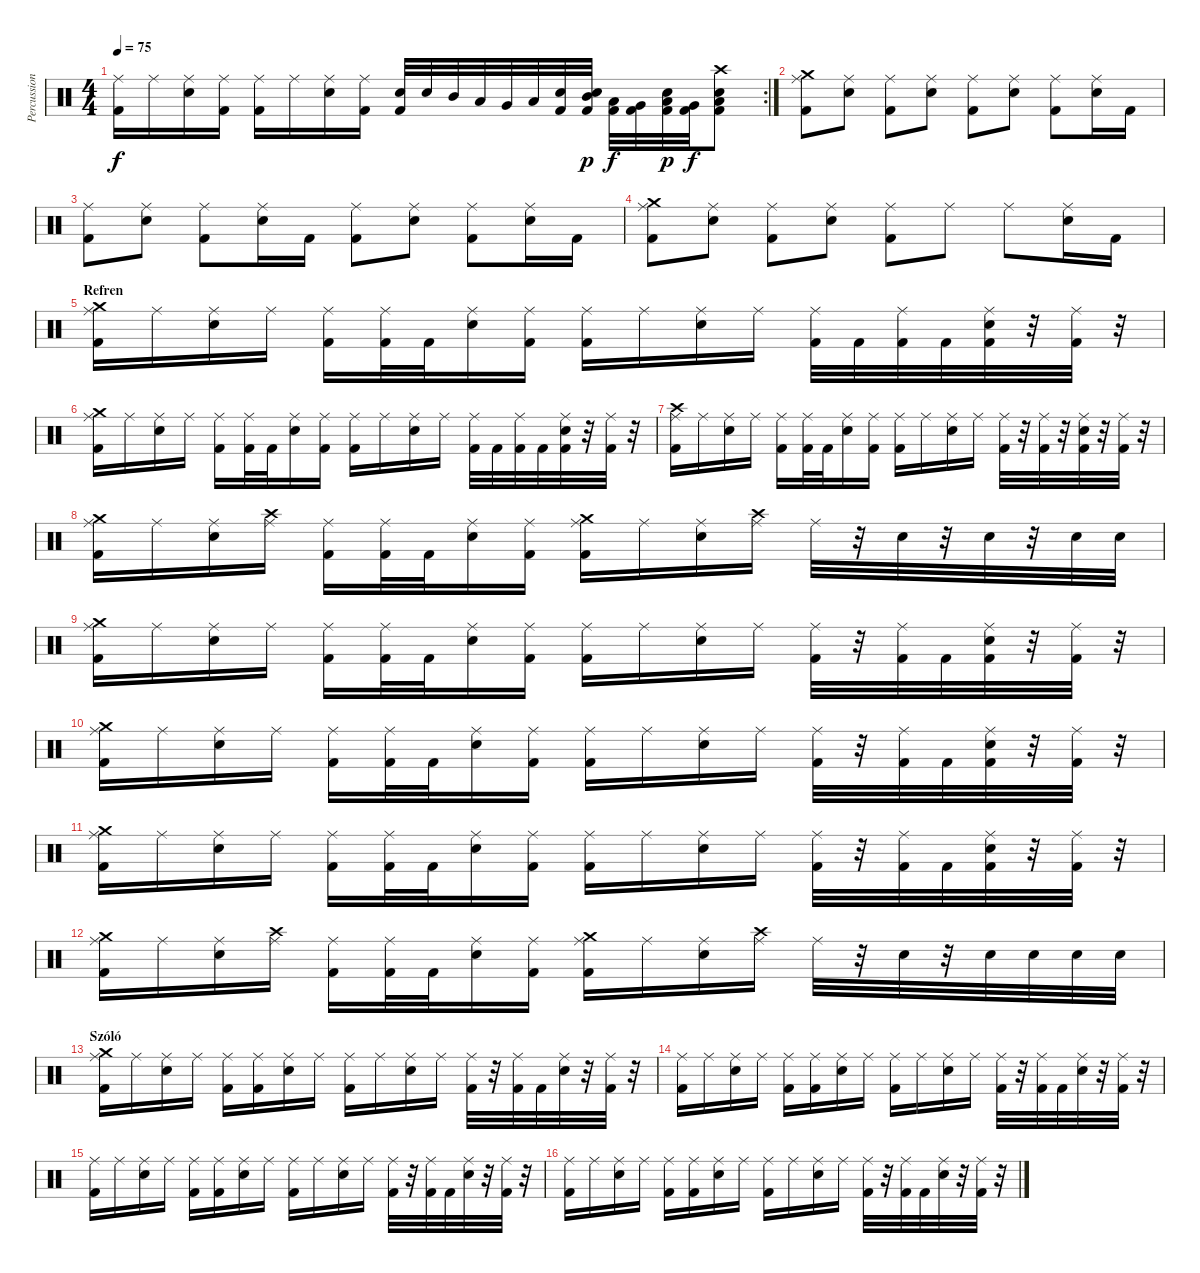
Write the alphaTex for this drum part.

\track ("Percussion" "Percussion") {instrument percussion}
\staff {score}
\articulation defaults
\rc 2
\ts (4 4)
\tempo 75
\clef neutral
\ks c
("Ride (middle)" "Kick (hit) 2").16{dy f} "Ride (middle)".16 ("Ride (middle)" "Electric Snare (hit)").16 ("Ride (middle)" "Kick (hit) 2").16 ("Ride (middle)" "Kick (hit) 2").16 "Ride (middle)".16 ("Ride (middle)" "Electric Snare (hit)").16 ("Ride (middle)" "Kick (hit) 2").16 ("Kick (hit) 2" "Electric Snare (hit)").32 "Electric Snare (hit)".32 "Mid Tom (hit)".32 "Low Tom (hit)".32 "Very Low Tom (hit)".32 "Low Floor Tom (hit)".32 ("Kick (hit) 2" "Electric Snare (hit)").32 ("Kick (hit) 2" "Electric Snare (hit)" "Mid Tom (hit)").32{dy p} ("Kick (hit) 2" "Low Tom (hit)").32{dy f} ("Kick (hit) 2" "Very Low Tom (hit)").32 ("Kick (hit) 2" "Electric Snare (hit)" "Low Tom (hit)").32{dy p} ("Kick (hit) 2" "Very Low Tom (hit)").32{dy f} ("Crash high (hit)" "Kick (hit) 2" "Low Tom (hit)" "Electric Snare (hit)").8 |
("Ride (middle)" "Crash medium (hit)" "Kick (hit) 2").8 ("Ride (middle)" "Electric Snare (hit)").8 ("Ride (middle)" "Kick (hit) 2").8 ("Ride (middle)" "Electric Snare (hit)").8 ("Ride (middle)" "Kick (hit) 2").8 ("Ride (middle)" "Electric Snare (hit)").8 ("Ride (middle)" "Kick (hit) 2").8 ("Ride (middle)" "Electric Snare (hit)").16 "Kick (hit) 2".16 |
("Ride (middle)" "Kick (hit) 2").8 ("Ride (middle)" "Electric Snare (hit)").8 ("Ride (middle)" "Kick (hit) 2").8 ("Ride (middle)" "Electric Snare (hit)").16 "Kick (hit) 2".16 ("Ride (middle)" "Kick (hit) 2").8 ("Ride (middle)" "Electric Snare (hit)").8 ("Ride (middle)" "Kick (hit) 2").8 ("Ride (middle)" "Electric Snare (hit)").16 "Kick (hit) 2".16 |
("Ride (middle)" "Crash medium (hit)" "Kick (hit) 2").8 ("Ride (middle)" "Electric Snare (hit)").8 ("Ride (middle)" "Kick (hit) 2").8 ("Ride (middle)" "Electric Snare (hit)").8 ("Ride (middle)" "Kick (hit) 2").8 "Ride (middle)".8 "Ride (middle)".8 ("Ride (middle)" "Electric Snare (hit)").16 "Kick (hit) 2".16 |
\section ("" "Refren")
("Ride (middle)" "Crash medium (hit)" "Kick (hit) 2").16 "Ride (middle)".16 ("Ride (middle)" "Electric Snare (hit)").16 "Ride (middle)".16 ("Ride (middle)" "Kick (hit) 2").16 ("Ride (middle)" "Kick (hit) 2").32 "Kick (hit) 2".32 ("Ride (middle)" "Electric Snare (hit)").16 ("Ride (middle)" "Kick (hit) 2").16 ("Ride (middle)" "Kick (hit) 2").16 "Ride (middle)".16 ("Ride (middle)" "Electric Snare (hit)").16 "Ride (middle)".16 ("Ride (middle)" "Kick (hit) 2").32 "Kick (hit) 2".32 ("Ride (middle)" "Kick (hit) 2").32 "Kick (hit) 2".32 ("Ride (middle)" "Kick (hit) 2" "Electric Snare (hit)").32 r.32 ("Ride (middle)" "Kick (hit) 2").32 r.32 |
("Ride (middle)" "Crash medium (hit)" "Kick (hit) 2").16 "Ride (middle)".16 ("Ride (middle)" "Electric Snare (hit)").16 "Ride (middle)".16 ("Ride (middle)" "Kick (hit) 2").16 ("Ride (middle)" "Kick (hit) 2").32 "Kick (hit) 2".32 ("Ride (middle)" "Electric Snare (hit)").16 ("Ride (middle)" "Kick (hit) 2").16 ("Ride (middle)" "Kick (hit) 2").16 "Ride (middle)".16 ("Ride (middle)" "Electric Snare (hit)").16 "Ride (middle)".16 ("Ride (middle)" "Kick (hit) 2").32 "Kick (hit) 2".32 ("Ride (middle)" "Kick (hit) 2").32 "Kick (hit) 2".32 ("Ride (middle)" "Kick (hit) 2" "Electric Snare (hit)").32 r.32 ("Ride (middle)" "Kick (hit) 2").32 r.32 |
("Ride (middle)" "Crash high (hit)" "Kick (hit) 2").16 "Ride (middle)".16 ("Ride (middle)" "Electric Snare (hit)").16 "Ride (middle)".16 ("Ride (middle)" "Kick (hit) 2").16 ("Ride (middle)" "Kick (hit) 2").32 "Kick (hit) 2".32 ("Ride (middle)" "Electric Snare (hit)").16 ("Ride (middle)" "Kick (hit) 2").16 ("Ride (middle)" "Kick (hit) 2").16 "Ride (middle)".16 ("Ride (middle)" "Electric Snare (hit)").16 "Ride (middle)".16 ("Ride (middle)" "Kick (hit) 2").32 r.32 ("Ride (middle)" "Kick (hit) 2").32 r.32 ("Ride (middle)" "Kick (hit) 2" "Electric Snare (hit)").32 r.32 ("Ride (middle)" "Kick (hit) 2").32 r.32 |
("Ride (middle)" "Crash medium (hit)" "Kick (hit) 2").16 "Ride (middle)".16 ("Ride (middle)" "Electric Snare (hit)").16 ("Ride (middle)" "Crash high (hit)").16 ("Ride (middle)" "Kick (hit) 2").16 ("Ride (middle)" "Kick (hit) 2").32 "Kick (hit) 2".32 ("Ride (middle)" "Electric Snare (hit)").16 ("Ride (middle)" "Kick (hit) 2").16 ("Ride (middle)" "Crash medium (hit)" "Kick (hit) 2").16 "Ride (middle)".16 ("Ride (middle)" "Electric Snare (hit)").16 ("Ride (middle)" "Crash high (hit)").16 "Ride (middle)".32 r.32 "Electric Snare (hit)".32 r.32 "Electric Snare (hit)".32 r.32 "Electric Snare (hit)".32 "Electric Snare (hit)".32 |
("Ride (middle)" "Crash medium (hit)" "Kick (hit) 2").16 "Ride (middle)".16 ("Ride (middle)" "Electric Snare (hit)").16 "Ride (middle)".16 ("Ride (middle)" "Kick (hit) 2").16 ("Ride (middle)" "Kick (hit) 2").32 "Kick (hit) 2".32 ("Ride (middle)" "Electric Snare (hit)").16 ("Ride (middle)" "Kick (hit) 2").16 ("Ride (middle)" "Kick (hit) 2").16 "Ride (middle)".16 ("Ride (middle)" "Electric Snare (hit)").16 "Ride (middle)".16 ("Ride (middle)" "Kick (hit) 2").32 r.32 ("Ride (middle)" "Kick (hit) 2").32 "Kick (hit) 2".32 ("Ride (middle)" "Kick (hit) 2" "Electric Snare (hit)").32 r.32 ("Ride (middle)" "Kick (hit) 2").32 r.32 |
("Ride (middle)" "Crash medium (hit)" "Kick (hit) 2").16 "Ride (middle)".16 ("Ride (middle)" "Electric Snare (hit)").16 "Ride (middle)".16 ("Ride (middle)" "Kick (hit) 2").16 ("Ride (middle)" "Kick (hit) 2").32 "Kick (hit) 2".32 ("Ride (middle)" "Electric Snare (hit)").16 ("Ride (middle)" "Kick (hit) 2").16 ("Ride (middle)" "Kick (hit) 2").16 "Ride (middle)".16 ("Ride (middle)" "Electric Snare (hit)").16 "Ride (middle)".16 ("Ride (middle)" "Kick (hit) 2").32 r.32 ("Ride (middle)" "Kick (hit) 2").32 "Kick (hit) 2".32 ("Ride (middle)" "Kick (hit) 2" "Electric Snare (hit)").32 r.32 ("Ride (middle)" "Kick (hit) 2").32 r.32 |
("Ride (middle)" "Crash medium (hit)" "Kick (hit) 2").16 "Ride (middle)".16 ("Ride (middle)" "Electric Snare (hit)").16 "Ride (middle)".16 ("Ride (middle)" "Kick (hit) 2").16 ("Ride (middle)" "Kick (hit) 2").32 "Kick (hit) 2".32 ("Ride (middle)" "Electric Snare (hit)").16 ("Ride (middle)" "Kick (hit) 2").16 ("Ride (middle)" "Kick (hit) 2").16 "Ride (middle)".16 ("Ride (middle)" "Electric Snare (hit)").16 "Ride (middle)".16 ("Ride (middle)" "Kick (hit) 2").32 r.32 ("Ride (middle)" "Kick (hit) 2").32 "Kick (hit) 2".32 ("Ride (middle)" "Kick (hit) 2" "Electric Snare (hit)").32 r.32 ("Ride (middle)" "Kick (hit) 2").32 r.32 |
("Ride (middle)" "Crash medium (hit)" "Kick (hit) 2").16 "Ride (middle)".16 ("Ride (middle)" "Electric Snare (hit)").16 ("Ride (middle)" "Crash high (hit)").16 ("Ride (middle)" "Kick (hit) 2").16 ("Ride (middle)" "Kick (hit) 2").32 "Kick (hit) 2".32 ("Ride (middle)" "Electric Snare (hit)").16 ("Ride (middle)" "Kick (hit) 2").16 ("Ride (middle)" "Crash medium (hit)" "Kick (hit) 2").16 "Ride (middle)".16 ("Ride (middle)" "Electric Snare (hit)").16 ("Ride (middle)" "Crash high (hit)").16 "Ride (middle)".32 r.32 "Electric Snare (hit)".32 r.32 "Electric Snare (hit)".32 "Electric Snare (hit)".32 "Electric Snare (hit)".32 "Electric Snare (hit)".32 |
\section ("" "Szóló")
("Ride (middle)" "Crash medium (hit)" "Kick (hit) 2").16 "Ride (middle)".16 ("Ride (middle)" "Electric Snare (hit)").16 "Ride (middle)".16 ("Ride (middle)" "Kick (hit) 2").16 ("Ride (middle)" "Kick (hit) 2").16 ("Ride (middle)" "Electric Snare (hit)").16 "Ride (middle)".16 ("Ride (middle)" "Kick (hit) 2").16 "Ride (middle)".16 ("Ride (middle)" "Electric Snare (hit)").16 "Ride (middle)".16 ("Ride (middle)" "Kick (hit) 2").32 r.32 ("Ride (middle)" "Kick (hit) 2").32 "Kick (hit) 2".32 ("Ride (middle)" "Electric Snare (hit)").32 r.32 ("Ride (middle)" "Kick (hit) 2").32 r.32 |
("Ride (middle)" "Kick (hit) 2").16 "Ride (middle)".16 ("Ride (middle)" "Electric Snare (hit)").16 "Ride (middle)".16 ("Ride (middle)" "Kick (hit) 2").16 ("Ride (middle)" "Kick (hit) 2").16 ("Ride (middle)" "Electric Snare (hit)").16 "Ride (middle)".16 ("Ride (middle)" "Kick (hit) 2").16 "Ride (middle)".16 ("Ride (middle)" "Electric Snare (hit)").16 "Ride (middle)".16 ("Ride (middle)" "Kick (hit) 2").32 r.32 ("Ride (middle)" "Kick (hit) 2").32 "Kick (hit) 2".32 ("Ride (middle)" "Electric Snare (hit)").32 r.32 ("Ride (middle)" "Kick (hit) 2").32 r.32 |
("Ride (middle)" "Kick (hit) 2").16 "Ride (middle)".16 ("Ride (middle)" "Electric Snare (hit)").16 "Ride (middle)".16 ("Ride (middle)" "Kick (hit) 2").16 ("Ride (middle)" "Kick (hit) 2").16 ("Ride (middle)" "Electric Snare (hit)").16 "Ride (middle)".16 ("Ride (middle)" "Kick (hit) 2").16 "Ride (middle)".16 ("Ride (middle)" "Electric Snare (hit)").16 "Ride (middle)".16 ("Ride (middle)" "Kick (hit) 2").32 r.32 ("Ride (middle)" "Kick (hit) 2").32 "Kick (hit) 2".32 ("Ride (middle)" "Electric Snare (hit)").32 r.32 ("Ride (middle)" "Kick (hit) 2").32 r.32 |
("Ride (middle)" "Kick (hit) 2").16 "Ride (middle)".16 ("Ride (middle)" "Electric Snare (hit)").16 "Ride (middle)".16 ("Ride (middle)" "Kick (hit) 2").16 ("Ride (middle)" "Kick (hit) 2").16 ("Ride (middle)" "Electric Snare (hit)").16 "Ride (middle)".16 ("Ride (middle)" "Kick (hit) 2").16 "Ride (middle)".16 ("Ride (middle)" "Electric Snare (hit)").16 "Ride (middle)".16 ("Ride (middle)" "Kick (hit) 2").32 r.32 ("Ride (middle)" "Kick (hit) 2").32 "Kick (hit) 2".32 ("Ride (middle)" "Electric Snare (hit)").32 r.32 ("Ride (middle)" "Kick (hit) 2").32 r.32
